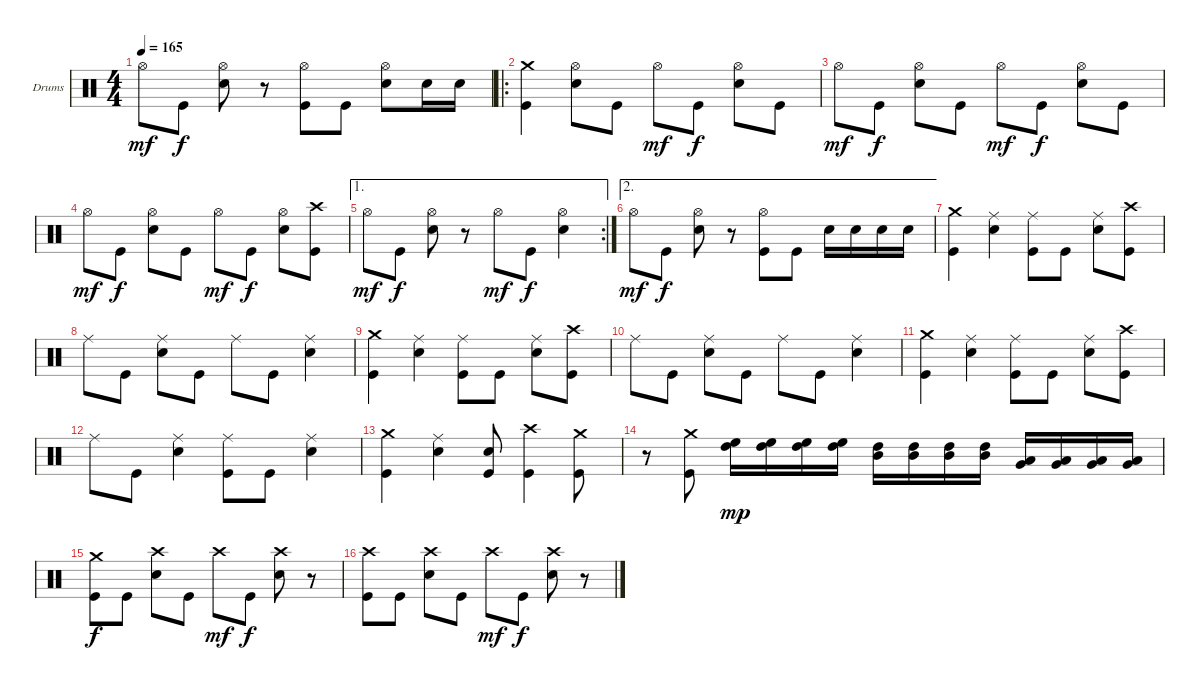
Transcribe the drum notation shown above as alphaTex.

\bracketExtendMode groupsimilarinstruments
\firstSystemTrackNameOrientation horizontal
\otherSystemsTrackNameOrientation horizontal
\track ("Drumkit" "Drums") {instrument percussion}
\staff {score}
\articulation defaults
\ts (4 4)
\tempo 165
\clef neutral
\ks c "Hi-Hat (open)".8{dy mf} "Kick (hit)".8{dy f}
("Snare (hit) 2" "Hi-Hat (open)").8 r.8 ("Kick (hit)" "Hi-Hat (open)").8 "Kick (hit)".8 ("Snare (hit) 2" "Hi-Hat (open)").8 "Snare (hit) 2".16 "Snare (hit) 2".16 |
\ro
("Kick (hit)" "Crash medium (hit)").4 ("Snare (hit) 2" "Hi-Hat (open)").8 "Kick (hit)".8 "Hi-Hat (open)".8{dy mf} "Kick (hit)".8{dy f} ("Snare (hit) 2" "Hi-Hat (open)").8 "Kick (hit)".8 |
"Hi-Hat (open)".8{dy mf} "Kick (hit)".8{dy f} ("Snare (hit) 2" "Hi-Hat (open)").8 "Kick (hit)".8 "Hi-Hat (open)".8{dy mf} "Kick (hit)".8{dy f} ("Snare (hit) 2" "Hi-Hat (open)").8 "Kick (hit)".8 |
"Hi-Hat (open)".8{dy mf} "Kick (hit)".8{dy f} ("Snare (hit) 2" "Hi-Hat (open)").8 "Kick (hit)".8 "Hi-Hat (open)".8{dy mf} "Kick (hit)".8{dy f} ("Snare (hit) 2" "Hi-Hat (open)").8 ("Kick (hit)" "Crash high (hit)").8 |
\ae 1
\rc 2 "Hi-Hat (open)".8{dy mf} "Kick (hit)".8{dy f}
("Snare (hit) 2" "Hi-Hat (open)").8 r.8 "Hi-Hat (open)".8{dy mf} "Kick (hit)".8{dy f} ("Snare (hit) 2" "Hi-Hat (open)").4 |
\ae 2 "Hi-Hat (open)".8{dy mf} "Kick (hit)".8{dy f}
("Snare (hit) 2" "Hi-Hat (open)").8 r.8 ("Kick (hit)" "Hi-Hat (open)").8 "Kick (hit)".8 "Snare (hit) 2".16 "Snare (hit) 2".16 "Snare (hit) 2".16 "Snare (hit) 2".16 |
("Kick (hit)" "Crash medium (hit)").4 ("Snare (hit) 2" "Ride (middle)").4 ("Kick (hit)" "Ride (middle)").8 "Kick (hit)".8 ("Snare (hit) 2" "Ride (middle)").8 ("Kick (hit)" "Crash high (hit)").8 |
"Ride (middle)".8 "Kick (hit)".8 ("Snare (hit) 2" "Ride (middle)").8 "Kick (hit)".8 "Ride (middle)".8 "Kick (hit)".8 ("Snare (hit) 2" "Ride (middle)").4 |
("Kick (hit)" "Crash medium (hit)").4 ("Snare (hit) 2" "Ride (middle)").4 ("Kick (hit)" "Ride (middle)").8 "Kick (hit)".8 ("Snare (hit) 2" "Ride (middle)").8 ("Kick (hit)" "Crash high (hit)").8 |
"Ride (middle)".8 "Kick (hit)".8 ("Snare (hit) 2" "Ride (middle)").8 "Kick (hit)".8 "Ride (middle)".8 "Kick (hit)".8 ("Snare (hit) 2" "Ride (middle)").4 |
("Kick (hit)" "Crash medium (hit)").4 ("Snare (hit) 2" "Ride (middle)").4 ("Kick (hit)" "Ride (middle)").8 "Kick (hit)".8 ("Snare (hit) 2" "Ride (middle)").8 ("Kick (hit)" "Crash high (hit)").8 |
"Ride (middle)".8 "Kick (hit)".8 ("Snare (hit) 2" "Ride (middle)").4 ("Kick (hit)" "Ride (middle)").8 "Kick (hit)".8 ("Snare (hit) 2" "Ride (middle)").4 |
("Kick (hit)" "Crash medium (hit)").4 ("Snare (hit) 2" "Ride (middle)").4 ("Kick (hit)" "Snare (hit) 2").8 ("Kick (hit)" "Crash high (hit)").4 ("Kick (hit)" "Crash medium (hit)").8 |
r.8 ("Kick (hit)" "Crash medium (hit)").8 ("High Floor Tom (hit)" "High Tom (hit)").16{dy mp} ("High Floor Tom (hit)" "High Tom (hit)").16 ("High Floor Tom (hit)" "High Tom (hit)").16 ("High Floor Tom (hit)" "High Tom (hit)").16 ("High Tom (hit)" "Mid Tom (hit)").16 ("High Tom (hit)" "Mid Tom (hit)").16 ("High Tom (hit)" "Mid Tom (hit)").16 ("High Tom (hit)" "Mid Tom (hit)").16 ("Low Tom (hit)" "Very Low Tom (hit)").16 ("Low Tom (hit)" "Very Low Tom (hit)").16 ("Low Tom (hit)" "Very Low Tom (hit)").16 ("Low Tom (hit)" "Very Low Tom (hit)").16 |
("Kick (hit)" "Crash medium (hit)").8{dy f} "Kick (hit)".8 ("Snare (hit) 2" "Crash high (hit)").8 "Kick (hit)".8 "Crash high (hit)".8{dy mf} "Kick (hit)".8{dy f} ("Snare (hit) 2" "Crash high (hit)").8 r.8 |
("Kick (hit)" "Crash high (hit)").8 "Kick (hit)".8 ("Snare (hit) 2" "Crash high (hit)").8 "Kick (hit)".8 "Crash high (hit)".8{dy mf} "Kick (hit)".8{dy f} ("Snare (hit) 2" "Crash high (hit)").8 r.8
